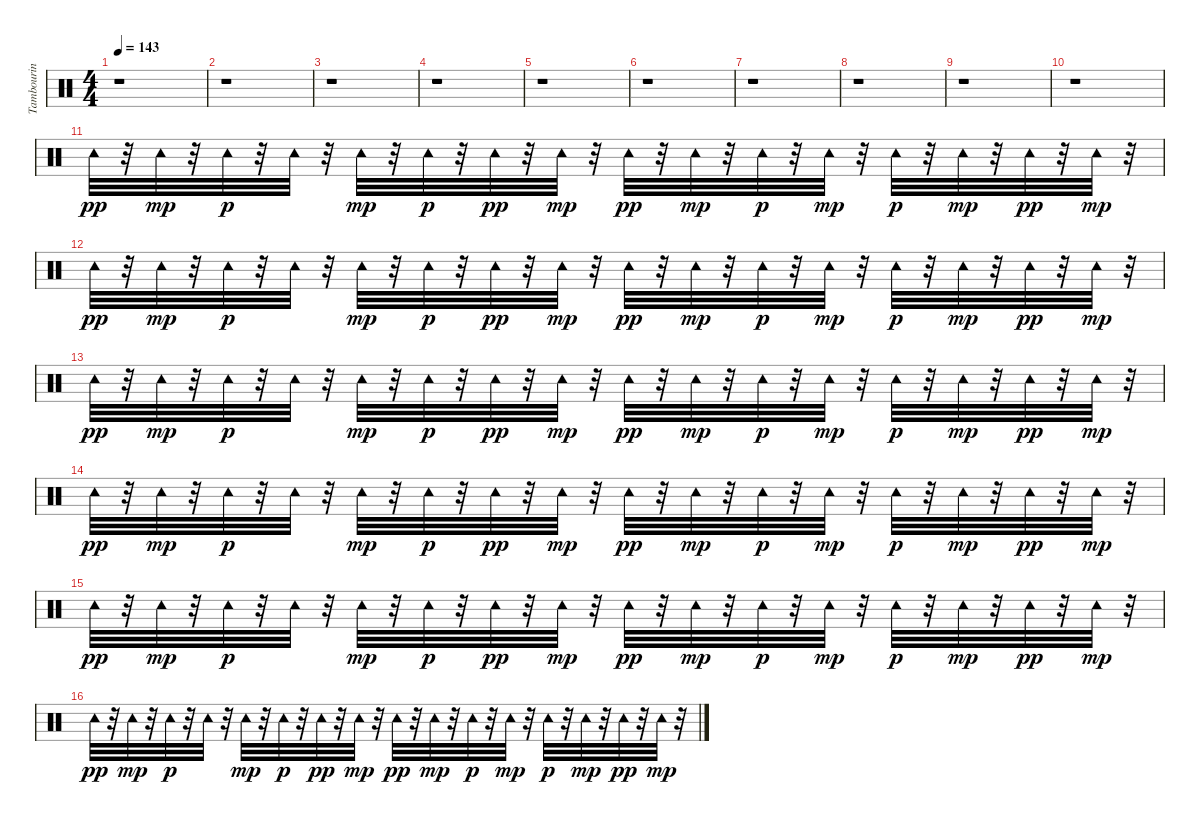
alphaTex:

\track ("Tambourin" "Tambourin") {instrument percussion}
\staff {score}
\articulation defaults
\ts (4 4)
\tempo 143
\clef neutral
\ks c
r.1{dy pp} |
r.1 |
r.1 |
r.1 |
r.1 |
r.1 |
r.1 |
r.1 |
r.1 |
r.1 |
"Tambourine (hit)".32 r.32 "Tambourine (hit)".32{dy mp} r.32 "Tambourine (hit)".32{dy p} r.32 "Tambourine (hit)".32 r.32 "Tambourine (hit)".32{dy mp} r.32 "Tambourine (hit)".32{dy p} r.32 "Tambourine (hit)".32{dy pp} r.32 "Tambourine (hit)".32{dy mp} r.32 "Tambourine (hit)".32{dy pp} r.32 "Tambourine (hit)".32{dy mp} r.32 "Tambourine (hit)".32{dy p} r.32 "Tambourine (hit)".32{dy mp} r.32 "Tambourine (hit)".32{dy p} r.32 "Tambourine (hit)".32{dy mp} r.32 "Tambourine (hit)".32{dy pp} r.32 "Tambourine (hit)".32{dy mp} r.32 |
"Tambourine (hit)".32{dy pp} r.32 "Tambourine (hit)".32{dy mp} r.32 "Tambourine (hit)".32{dy p} r.32 "Tambourine (hit)".32 r.32 "Tambourine (hit)".32{dy mp} r.32 "Tambourine (hit)".32{dy p} r.32 "Tambourine (hit)".32{dy pp} r.32 "Tambourine (hit)".32{dy mp} r.32 "Tambourine (hit)".32{dy pp} r.32 "Tambourine (hit)".32{dy mp} r.32 "Tambourine (hit)".32{dy p} r.32 "Tambourine (hit)".32{dy mp} r.32 "Tambourine (hit)".32{dy p} r.32 "Tambourine (hit)".32{dy mp} r.32 "Tambourine (hit)".32{dy pp} r.32 "Tambourine (hit)".32{dy mp} r.32 |
"Tambourine (hit)".32{dy pp} r.32 "Tambourine (hit)".32{dy mp} r.32 "Tambourine (hit)".32{dy p} r.32 "Tambourine (hit)".32 r.32 "Tambourine (hit)".32{dy mp} r.32 "Tambourine (hit)".32{dy p} r.32 "Tambourine (hit)".32{dy pp} r.32 "Tambourine (hit)".32{dy mp} r.32 "Tambourine (hit)".32{dy pp} r.32 "Tambourine (hit)".32{dy mp} r.32 "Tambourine (hit)".32{dy p} r.32 "Tambourine (hit)".32{dy mp} r.32 "Tambourine (hit)".32{dy p} r.32 "Tambourine (hit)".32{dy mp} r.32 "Tambourine (hit)".32{dy pp} r.32 "Tambourine (hit)".32{dy mp} r.32 |
"Tambourine (hit)".32{dy pp} r.32 "Tambourine (hit)".32{dy mp} r.32 "Tambourine (hit)".32{dy p} r.32 "Tambourine (hit)".32 r.32 "Tambourine (hit)".32{dy mp} r.32 "Tambourine (hit)".32{dy p} r.32 "Tambourine (hit)".32{dy pp} r.32 "Tambourine (hit)".32{dy mp} r.32 "Tambourine (hit)".32{dy pp} r.32 "Tambourine (hit)".32{dy mp} r.32 "Tambourine (hit)".32{dy p} r.32 "Tambourine (hit)".32{dy mp} r.32 "Tambourine (hit)".32{dy p} r.32 "Tambourine (hit)".32{dy mp} r.32 "Tambourine (hit)".32{dy pp} r.32 "Tambourine (hit)".32{dy mp} r.32 |
"Tambourine (hit)".32{dy pp} r.32 "Tambourine (hit)".32{dy mp} r.32 "Tambourine (hit)".32{dy p} r.32 "Tambourine (hit)".32 r.32 "Tambourine (hit)".32{dy mp} r.32 "Tambourine (hit)".32{dy p} r.32 "Tambourine (hit)".32{dy pp} r.32 "Tambourine (hit)".32{dy mp} r.32 "Tambourine (hit)".32{dy pp} r.32 "Tambourine (hit)".32{dy mp} r.32 "Tambourine (hit)".32{dy p} r.32 "Tambourine (hit)".32{dy mp} r.32 "Tambourine (hit)".32{dy p} r.32 "Tambourine (hit)".32{dy mp} r.32 "Tambourine (hit)".32{dy pp} r.32 "Tambourine (hit)".32{dy mp} r.32 |
"Tambourine (hit)".32{dy pp} r.32 "Tambourine (hit)".32{dy mp} r.32 "Tambourine (hit)".32{dy p} r.32 "Tambourine (hit)".32 r.32 "Tambourine (hit)".32{dy mp} r.32 "Tambourine (hit)".32{dy p} r.32 "Tambourine (hit)".32{dy pp} r.32 "Tambourine (hit)".32{dy mp} r.32 "Tambourine (hit)".32{dy pp} r.32 "Tambourine (hit)".32{dy mp} r.32 "Tambourine (hit)".32{dy p} r.32 "Tambourine (hit)".32{dy mp} r.32 "Tambourine (hit)".32{dy p} r.32 "Tambourine (hit)".32{dy mp} r.32 "Tambourine (hit)".32{dy pp} r.32 "Tambourine (hit)".32{dy mp} r.32
